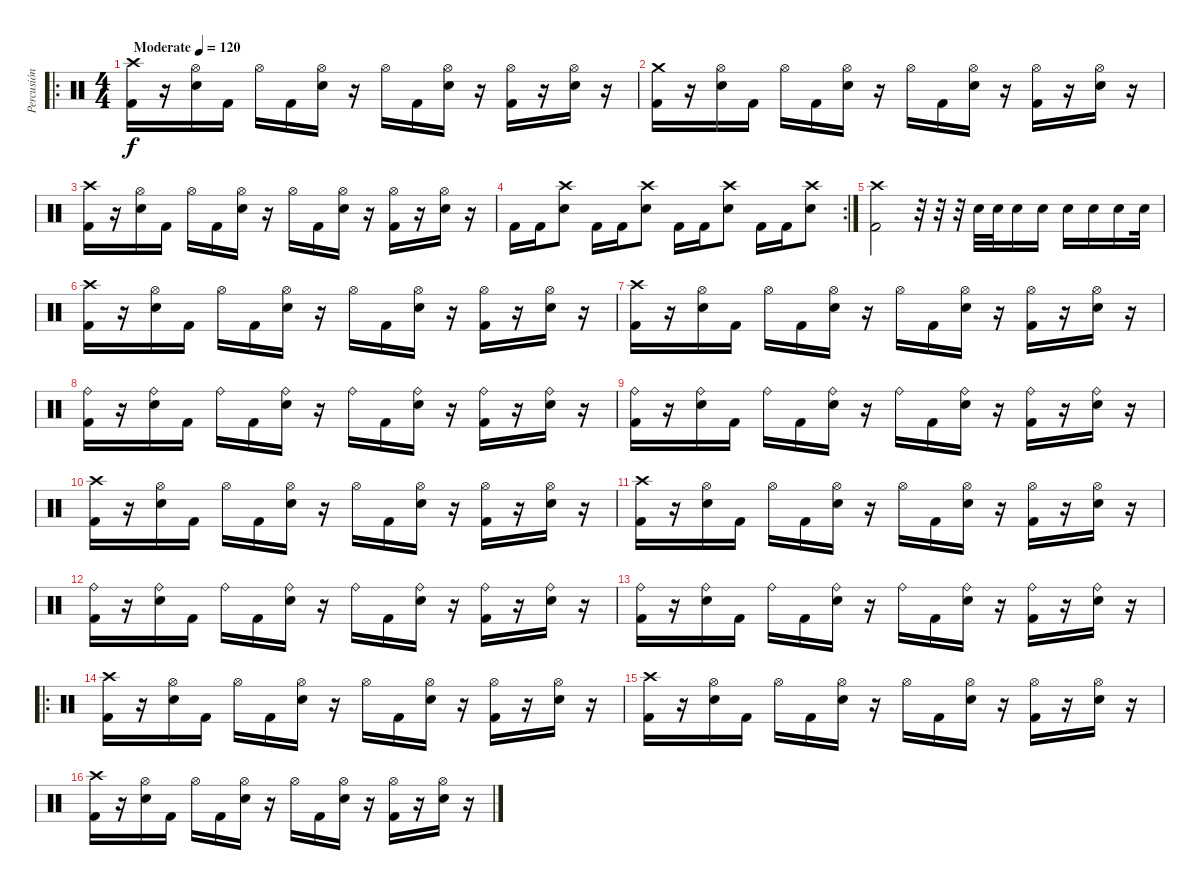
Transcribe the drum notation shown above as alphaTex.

\track ("Percusión" "Percusión") {instrument percussion}
\staff {score}
\articulation defaults
\ro
\ts (4 4)
\tempo (120 "Moderate")
\clef neutral
\ks c
("Crash high (hit)" "Kick (hit) 2").16{dy f} r.16 ("Hi-Hat (open)" "Electric Snare (hit)").16 "Kick (hit) 2".16 "Hi-Hat (open)".16 "Kick (hit) 2".16 ("Hi-Hat (open)" "Electric Snare (hit)").16 r.16 "Hi-Hat (open)".16 "Kick (hit) 2".16 ("Hi-Hat (open)" "Electric Snare (hit)").16 r.16 ("Hi-Hat (open)" "Kick (hit) 2").16 r.16 ("Hi-Hat (open)" "Electric Snare (hit)").16 r.16 |
("Crash medium (hit)" "Kick (hit) 2").16 r.16 ("Hi-Hat (open)" "Electric Snare (hit)").16 "Kick (hit) 2".16 "Hi-Hat (open)".16 "Kick (hit) 2".16 ("Hi-Hat (open)" "Electric Snare (hit)").16 r.16 "Hi-Hat (open)".16 "Kick (hit) 2".16 ("Hi-Hat (open)" "Electric Snare (hit)").16 r.16 ("Hi-Hat (open)" "Kick (hit) 2").16 r.16 ("Hi-Hat (open)" "Electric Snare (hit)").16 r.16 |
("Crash high (hit)" "Kick (hit) 2").16 r.16 ("Hi-Hat (open)" "Electric Snare (hit)").16 "Kick (hit) 2".16 "Hi-Hat (open)".16 "Kick (hit) 2".16 ("Hi-Hat (open)" "Electric Snare (hit)").16 r.16 "Hi-Hat (open)".16 "Kick (hit) 2".16 ("Hi-Hat (open)" "Electric Snare (hit)").16 r.16 ("Hi-Hat (open)" "Kick (hit) 2").16 r.16 ("Hi-Hat (open)" "Electric Snare (hit)").16 r.16 |
\rc 2 "Kick (hit) 2".16 "Kick (hit) 2".16
("Crash high (hit)" "Electric Snare (hit)").8 "Kick (hit) 2".16 "Kick (hit) 2".16 ("Crash high (hit)" "Electric Snare (hit)").8 "Kick (hit) 2".16 "Kick (hit) 2".16 ("Crash high (hit)" "Electric Snare (hit)").8 "Kick (hit) 2".16 "Kick (hit) 2".16 ("Crash high (hit)" "Electric Snare (hit)").8 |
("Crash high (hit)" "Kick (hit) 2").2 r.32 r.32 r.32 "Electric Snare (hit)".32 "Electric Snare (hit)".32 "Electric Snare (hit)".16 "Electric Snare (hit)".16 "Electric Snare (hit)".16 "Electric Snare (hit)".16 "Electric Snare (hit)".16 "Electric Snare (hit)".32 |
("Crash high (hit)" "Kick (hit) 2").16 r.16 ("Hi-Hat (open)" "Electric Snare (hit)").16 "Kick (hit) 2".16 "Hi-Hat (open)".16 "Kick (hit) 2".16 ("Hi-Hat (open)" "Electric Snare (hit)").16 r.16 "Hi-Hat (open)".16 "Kick (hit) 2".16 ("Hi-Hat (open)" "Electric Snare (hit)").16 r.16 ("Hi-Hat (open)" "Kick (hit) 2").16 r.16 ("Hi-Hat (open)" "Electric Snare (hit)").16 r.16 |
("Crash high (hit)" "Kick (hit) 2").16 r.16 ("Hi-Hat (open)" "Electric Snare (hit)").16 "Kick (hit) 2".16 "Hi-Hat (open)".16 "Kick (hit) 2".16 ("Hi-Hat (open)" "Electric Snare (hit)").16 r.16 "Hi-Hat (open)".16 "Kick (hit) 2".16 ("Hi-Hat (open)" "Electric Snare (hit)").16 r.16 ("Hi-Hat (open)" "Kick (hit) 2").16 r.16 ("Hi-Hat (open)" "Electric Snare (hit)").16 r.16 |
("Ride (bell)" "Kick (hit) 2").16 r.16 ("Ride (bell)" "Electric Snare (hit)").16 "Kick (hit) 2".16 "Ride (bell)".16 "Kick (hit) 2".16 ("Ride (bell)" "Electric Snare (hit)").16 r.16 "Ride (bell)".16 "Kick (hit) 2".16 ("Ride (bell)" "Electric Snare (hit)").16 r.16 ("Ride (bell)" "Kick (hit) 2").16 r.16 ("Ride (bell)" "Electric Snare (hit)").16 r.16 |
("Ride (bell)" "Kick (hit) 2").16 r.16 ("Ride (bell)" "Electric Snare (hit)").16 "Kick (hit) 2".16 "Ride (bell)".16 "Kick (hit) 2".16 ("Ride (bell)" "Electric Snare (hit)").16 r.16 "Ride (bell)".16 "Kick (hit) 2".16 ("Ride (bell)" "Electric Snare (hit)").16 r.16 ("Ride (bell)" "Kick (hit) 2").16 r.16 ("Ride (bell)" "Electric Snare (hit)").16 r.16 |
("Crash high (hit)" "Kick (hit) 2").16 r.16 ("Hi-Hat (open)" "Electric Snare (hit)").16 "Kick (hit) 2".16 "Hi-Hat (open)".16 "Kick (hit) 2".16 ("Hi-Hat (open)" "Electric Snare (hit)").16 r.16 "Hi-Hat (open)".16 "Kick (hit) 2".16 ("Hi-Hat (open)" "Electric Snare (hit)").16 r.16 ("Hi-Hat (open)" "Kick (hit) 2").16 r.16 ("Hi-Hat (open)" "Electric Snare (hit)").16 r.16 |
("Crash high (hit)" "Kick (hit) 2").16 r.16 ("Hi-Hat (open)" "Electric Snare (hit)").16 "Kick (hit) 2".16 "Hi-Hat (open)".16 "Kick (hit) 2".16 ("Hi-Hat (open)" "Electric Snare (hit)").16 r.16 "Hi-Hat (open)".16 "Kick (hit) 2".16 ("Hi-Hat (open)" "Electric Snare (hit)").16 r.16 ("Hi-Hat (open)" "Kick (hit) 2").16 r.16 ("Hi-Hat (open)" "Electric Snare (hit)").16 r.16 |
("Ride (bell)" "Kick (hit) 2").16 r.16 ("Ride (bell)" "Electric Snare (hit)").16 "Kick (hit) 2".16 "Ride (bell)".16 "Kick (hit) 2".16 ("Ride (bell)" "Electric Snare (hit)").16 r.16 "Ride (bell)".16 "Kick (hit) 2".16 ("Ride (bell)" "Electric Snare (hit)").16 r.16 ("Ride (bell)" "Kick (hit) 2").16 r.16 ("Ride (bell)" "Electric Snare (hit)").16 r.16 |
("Ride (bell)" "Kick (hit) 2").16 r.16 ("Ride (bell)" "Electric Snare (hit)").16 "Kick (hit) 2".16 "Ride (bell)".16 "Kick (hit) 2".16 ("Ride (bell)" "Electric Snare (hit)").16 r.16 "Ride (bell)".16 "Kick (hit) 2".16 ("Ride (bell)" "Electric Snare (hit)").16 r.16 ("Ride (bell)" "Kick (hit) 2").16 r.16 ("Ride (bell)" "Electric Snare (hit)").16 r.16 |
\ro
("Crash high (hit)" "Kick (hit) 2").16 r.16 ("Hi-Hat (open)" "Electric Snare (hit)").16 "Kick (hit) 2".16 "Hi-Hat (open)".16 "Kick (hit) 2".16 ("Hi-Hat (open)" "Electric Snare (hit)").16 r.16 "Hi-Hat (open)".16 "Kick (hit) 2".16 ("Hi-Hat (open)" "Electric Snare (hit)").16 r.16 ("Hi-Hat (open)" "Kick (hit) 2").16 r.16 ("Hi-Hat (open)" "Electric Snare (hit)").16 r.16 |
("Crash high (hit)" "Kick (hit) 2").16 r.16 ("Hi-Hat (open)" "Electric Snare (hit)").16 "Kick (hit) 2".16 "Hi-Hat (open)".16 "Kick (hit) 2".16 ("Hi-Hat (open)" "Electric Snare (hit)").16 r.16 "Hi-Hat (open)".16 "Kick (hit) 2".16 ("Hi-Hat (open)" "Electric Snare (hit)").16 r.16 ("Hi-Hat (open)" "Kick (hit) 2").16 r.16 ("Hi-Hat (open)" "Electric Snare (hit)").16 r.16 |
("Crash high (hit)" "Kick (hit) 2").16 r.16 ("Hi-Hat (open)" "Electric Snare (hit)").16 "Kick (hit) 2".16 "Hi-Hat (open)".16 "Kick (hit) 2".16 ("Hi-Hat (open)" "Electric Snare (hit)").16 r.16 "Hi-Hat (open)".16 "Kick (hit) 2".16 ("Hi-Hat (open)" "Electric Snare (hit)").16 r.16 ("Hi-Hat (open)" "Kick (hit) 2").16 r.16 ("Hi-Hat (open)" "Electric Snare (hit)").16 r.16
